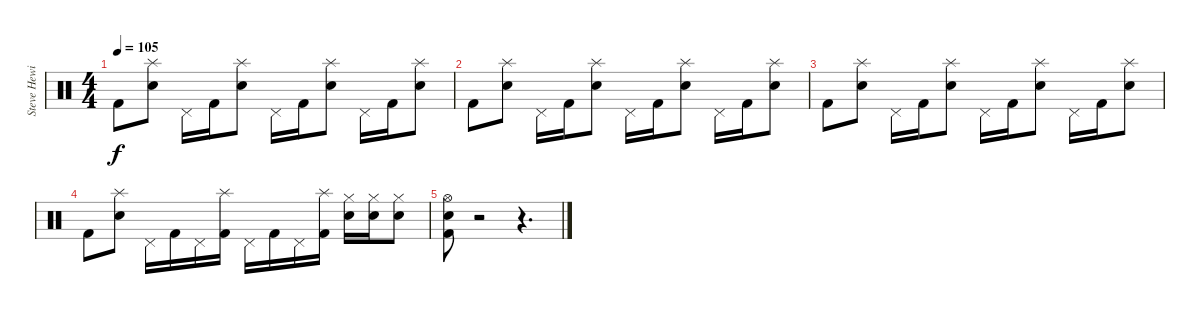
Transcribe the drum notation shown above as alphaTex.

\track ("Steve Hewitt" "Steve Hewi") {instrument percussion}
\staff {score}
\articulation defaults
\ts (4 4)
\tempo 105
\clef neutral
\ks c "Kick (hit) 2".8{dy f}
("Splash (hit)" "Electric Snare (hit)").8 "Pedal Hi-Hat (hit)".16 "Kick (hit) 2".16 ("Splash (hit)" "Electric Snare (hit)").8 "Pedal Hi-Hat (hit)".16 "Kick (hit) 2".16 ("Splash (hit)" "Electric Snare (hit)").8 "Pedal Hi-Hat (hit)".16 "Kick (hit) 2".16 ("Splash (hit)" "Electric Snare (hit)").8 |
"Kick (hit) 2".8 ("Splash (hit)" "Electric Snare (hit)").8 "Pedal Hi-Hat (hit)".16 "Kick (hit) 2".16 ("Splash (hit)" "Electric Snare (hit)").8 "Pedal Hi-Hat (hit)".16 "Kick (hit) 2".16 ("Splash (hit)" "Electric Snare (hit)").8 "Pedal Hi-Hat (hit)".16 "Kick (hit) 2".16 ("Splash (hit)" "Electric Snare (hit)").8 |
"Kick (hit) 2".8 ("Splash (hit)" "Electric Snare (hit)").8 "Pedal Hi-Hat (hit)".16 "Kick (hit) 2".16 ("Splash (hit)" "Electric Snare (hit)").8 "Pedal Hi-Hat (hit)".16 "Kick (hit) 2".16 ("Splash (hit)" "Electric Snare (hit)").8 "Pedal Hi-Hat (hit)".16 "Kick (hit) 2".16 ("Splash (hit)" "Electric Snare (hit)").8 |
"Kick (hit) 2".8 ("Splash (hit)" "Electric Snare (hit)").8 "Pedal Hi-Hat (hit)".16 "Kick (hit) 2".16 "Pedal Hi-Hat (hit)".16 ("Splash (hit)" "Kick (hit) 2").16 "Pedal Hi-Hat (hit)".16 "Kick (hit) 2".16 "Pedal Hi-Hat (hit)".16 ("Splash (hit)" "Kick (hit) 2").16 ("Hi-Hat (closed)" "Electric Snare (hit)").16 ("Hi-Hat (closed)" "Electric Snare (hit)").16 ("Hi-Hat (closed)" "Electric Snare (hit)").8 |
("Hi-Hat (open)" "Electric Snare (hit)" "Kick (hit) 2").8 r.2 r.4{d}
